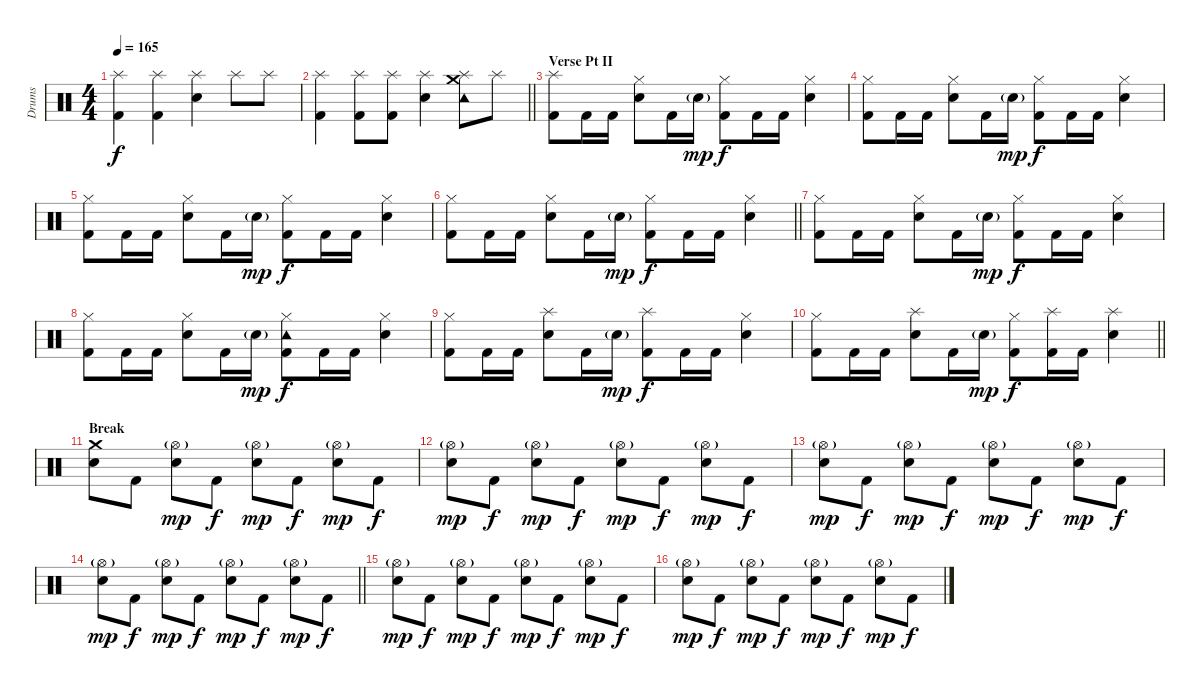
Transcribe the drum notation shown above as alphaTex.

\track ("Drums" "Drums") {instrument percussion}
\staff {score}
\articulation defaults
\ts (4 4)
\tempo 165
\clef neutral
\ks c
("Kick (hit) 2" "Splash (hit)").4{dy f} ("Kick (hit) 2" "Splash (hit)").4 ("Snare (hit) 2" "Splash (hit)").4 "Splash (hit)".8 "Splash (hit)".8 |
\barLineRight lightlight
("Kick (hit) 2" "Splash (hit)").4 ("Kick (hit) 2" "Splash (hit)").8 ("Kick (hit) 2" "Splash (hit)").8 ("Snare (hit) 2" "Splash (hit)").4 ("Splash (hit)" "Tambourine (hit)" "Crash medium (hit)").8 "Splash (hit)".8 |
\section ("" "Verse Pt II")
("Kick (hit) 2" "Splash (hit)").8 "Kick (hit) 2".16 "Kick (hit) 2".16 ("Snare (hit) 2" "Hi-Hat (closed)").8 "Kick (hit) 2".16 "Snare (hit) 2"{g}.16{dy mp} ("Kick (hit) 2" "Hi-Hat (closed)").8{dy f} "Kick (hit) 2".16 "Kick (hit) 2".16 ("Snare (hit) 2" "Hi-Hat (closed)").4 |
("Kick (hit) 2" "Hi-Hat (closed)").8 "Kick (hit) 2".16 "Kick (hit) 2".16 ("Snare (hit) 2" "Hi-Hat (closed)").8 "Kick (hit) 2".16 "Snare (hit) 2"{g}.16{dy mp} ("Kick (hit) 2" "Hi-Hat (closed)").8{dy f} "Kick (hit) 2".16 "Kick (hit) 2".16 ("Snare (hit) 2" "Hi-Hat (closed)").4 |
("Kick (hit) 2" "Hi-Hat (closed)").8 "Kick (hit) 2".16 "Kick (hit) 2".16 ("Snare (hit) 2" "Hi-Hat (closed)").8 "Kick (hit) 2".16 "Snare (hit) 2"{g}.16{dy mp} ("Kick (hit) 2" "Hi-Hat (closed)").8{dy f} "Kick (hit) 2".16 "Kick (hit) 2".16 ("Snare (hit) 2" "Hi-Hat (closed)").4 |
\barLineRight lightlight
("Kick (hit) 2" "Hi-Hat (closed)").8 "Kick (hit) 2".16 "Kick (hit) 2".16 ("Snare (hit) 2" "Hi-Hat (closed)").8 "Kick (hit) 2".16 "Snare (hit) 2"{g}.16{dy mp} ("Kick (hit) 2" "Hi-Hat (closed)").8{dy f} "Kick (hit) 2".16 "Kick (hit) 2".16 ("Snare (hit) 2" "Hi-Hat (closed)").4 |
\section ("" "")
("Kick (hit) 2" "Hi-Hat (closed)").8 "Kick (hit) 2".16 "Kick (hit) 2".16 ("Snare (hit) 2" "Hi-Hat (closed)").8 "Kick (hit) 2".16 "Snare (hit) 2"{g}.16{dy mp} ("Kick (hit) 2" "Hi-Hat (closed)").8{dy f} "Kick (hit) 2".16 "Kick (hit) 2".16 ("Snare (hit) 2" "Hi-Hat (closed)").4 |
("Kick (hit) 2" "Hi-Hat (closed)").8 "Kick (hit) 2".16 "Kick (hit) 2".16 ("Snare (hit) 2" "Hi-Hat (closed)").8 "Kick (hit) 2".16 "Snare (hit) 2"{g}.16{dy mp} ("Kick (hit) 2" "Hi-Hat (closed)" "Tambourine (hit)").8{dy f} "Kick (hit) 2".16 "Kick (hit) 2".16 ("Snare (hit) 2" "Hi-Hat (closed)").4 |
("Kick (hit) 2" "Hi-Hat (closed)").8 "Kick (hit) 2".16 "Kick (hit) 2".16 ("Snare (hit) 2" "Splash (hit)").8 "Kick (hit) 2".16 "Snare (hit) 2"{g}.16{dy mp} ("Kick (hit) 2" "Splash (hit)").8{dy f} "Kick (hit) 2".16 "Kick (hit) 2".16 ("Snare (hit) 2" "Hi-Hat (closed)").4 |
\barLineRight lightlight
("Kick (hit) 2" "Hi-Hat (closed)").8 "Kick (hit) 2".16 "Kick (hit) 2".16 ("Snare (hit) 2" "Splash (hit)").8 "Kick (hit) 2".16 "Snare (hit) 2"{g}.16{dy mp} ("Kick (hit) 2" "Hi-Hat (closed)").8{dy f} ("Kick (hit) 2" "Splash (hit)").16 "Kick (hit) 2".16 ("Snare (hit) 2" "Splash (hit)").4 |
\section ("" "Break")
("Snare (hit) 2" "Crash medium (hit)").8 "Kick (hit) 2".8 ("Snare (hit) 2" "Hi-Hat (open)"{g}).8{dy mp} "Kick (hit) 2".8{dy f} ("Snare (hit) 2" "Hi-Hat (open)"{g}).8{dy mp} "Kick (hit) 2".8{dy f} ("Snare (hit) 2" "Hi-Hat (open)"{g}).8{dy mp} "Kick (hit) 2".8{dy f} |
("Snare (hit) 2" "Hi-Hat (open)"{g}).8{dy mp} "Kick (hit) 2".8{dy f} ("Snare (hit) 2" "Hi-Hat (open)"{g}).8{dy mp} "Kick (hit) 2".8{dy f} ("Snare (hit) 2" "Hi-Hat (open)"{g}).8{dy mp} "Kick (hit) 2".8{dy f} ("Snare (hit) 2" "Hi-Hat (open)"{g}).8{dy mp} "Kick (hit) 2".8{dy f} |
("Snare (hit) 2" "Hi-Hat (open)"{g}).8{dy mp} "Kick (hit) 2".8{dy f} ("Snare (hit) 2" "Hi-Hat (open)"{g}).8{dy mp} "Kick (hit) 2".8{dy f} ("Snare (hit) 2" "Hi-Hat (open)"{g}).8{dy mp} "Kick (hit) 2".8{dy f} ("Snare (hit) 2" "Hi-Hat (open)"{g}).8{dy mp} "Kick (hit) 2".8{dy f} |
\barLineRight lightlight
("Snare (hit) 2" "Hi-Hat (open)"{g}).8{dy mp} "Kick (hit) 2".8{dy f} ("Snare (hit) 2" "Hi-Hat (open)"{g}).8{dy mp} "Kick (hit) 2".8{dy f} ("Snare (hit) 2" "Hi-Hat (open)"{g}).8{dy mp} "Kick (hit) 2".8{dy f} ("Snare (hit) 2" "Hi-Hat (open)"{g}).8{dy mp} "Kick (hit) 2".8{dy f} |
\section ("" "")
("Snare (hit) 2" "Hi-Hat (open)"{g}).8{dy mp} "Kick (hit) 2".8{dy f} ("Snare (hit) 2" "Hi-Hat (open)"{g}).8{dy mp} "Kick (hit) 2".8{dy f} ("Snare (hit) 2" "Hi-Hat (open)"{g}).8{dy mp} "Kick (hit) 2".8{dy f} ("Snare (hit) 2" "Hi-Hat (open)"{g}).8{dy mp} "Kick (hit) 2".8{dy f} |
("Snare (hit) 2" "Hi-Hat (open)"{g}).8{dy mp} "Kick (hit) 2".8{dy f} ("Snare (hit) 2" "Hi-Hat (open)"{g}).8{dy mp} "Kick (hit) 2".8{dy f} ("Snare (hit) 2" "Hi-Hat (open)"{g}).8{dy mp} "Kick (hit) 2".8{dy f} ("Snare (hit) 2" "Hi-Hat (open)"{g}).8{dy mp} "Kick (hit) 2".8{dy f}
